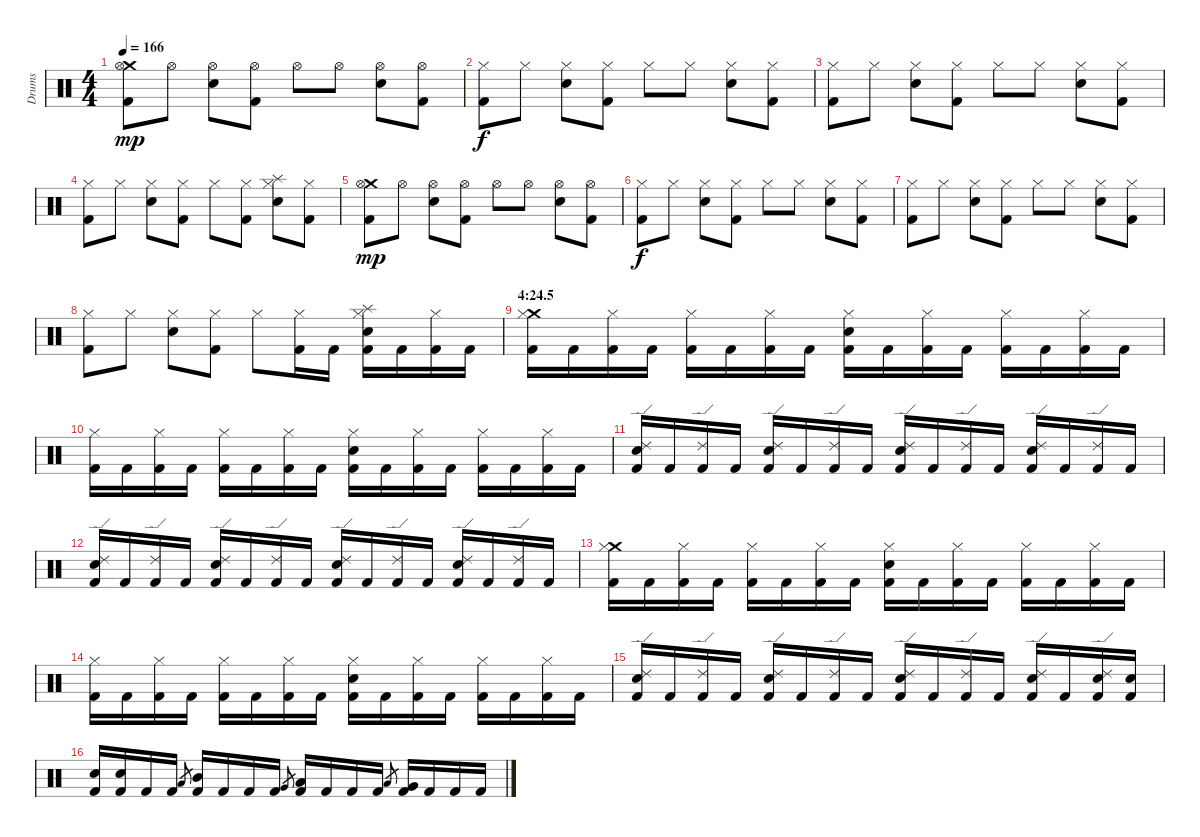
\track ("Drums" "Drums") {instrument percussion}
\staff {score}
\articulation defaults
\ts (4 4)
\tempo 166
\clef neutral
\ks c
("Crash medium (hit)" "Hi-Hat (open)" "Kick (hit) 2").8{dy mp} "Hi-Hat (open)".8 ("Hi-Hat (open)" "Electric Snare (hit)").8 ("Hi-Hat (open)" "Kick (hit) 2").8 "Hi-Hat (open)".8 "Hi-Hat (open)".8 ("Hi-Hat (open)" "Electric Snare (hit)").8 ("Hi-Hat (open)" "Kick (hit) 2").8 |
("Hi-Hat (closed)" "Kick (hit) 2").8{dy f} "Hi-Hat (closed)".8 ("Hi-Hat (closed)" "Electric Snare (hit)").8 ("Hi-Hat (closed)" "Kick (hit) 2").8 "Hi-Hat (closed)".8 "Hi-Hat (closed)".8 ("Hi-Hat (closed)" "Electric Snare (hit)").8 ("Hi-Hat (closed)" "Kick (hit) 2").8 |
("Hi-Hat (closed)" "Kick (hit) 2").8 "Hi-Hat (closed)".8 ("Hi-Hat (closed)" "Electric Snare (hit)").8 ("Hi-Hat (closed)" "Kick (hit) 2").8 "Hi-Hat (closed)".8 "Hi-Hat (closed)".8 ("Hi-Hat (closed)" "Electric Snare (hit)").8 ("Hi-Hat (closed)" "Kick (hit) 2").8 |
("Hi-Hat (closed)" "Kick (hit) 2").8 "Hi-Hat (closed)".8 ("Hi-Hat (closed)" "Electric Snare (hit)").8 ("Hi-Hat (closed)" "Kick (hit) 2").8 "Hi-Hat (closed)".8 ("Hi-Hat (closed)" "Kick (hit) 2").8 ("Splash (hit)" "Hi-Hat (closed)" "Electric Snare (hit)").8 ("Hi-Hat (closed)" "Kick (hit) 2").8 |
("Crash medium (hit)" "Hi-Hat (open)" "Kick (hit) 2").8{dy mp} "Hi-Hat (open)".8 ("Hi-Hat (open)" "Electric Snare (hit)").8 ("Hi-Hat (open)" "Kick (hit) 2").8 "Hi-Hat (open)".8 "Hi-Hat (open)".8 ("Hi-Hat (open)" "Electric Snare (hit)").8 ("Hi-Hat (open)" "Kick (hit) 2").8 |
("Hi-Hat (closed)" "Kick (hit) 2").8{dy f} "Hi-Hat (closed)".8 ("Hi-Hat (closed)" "Electric Snare (hit)").8 ("Hi-Hat (closed)" "Kick (hit) 2").8 "Hi-Hat (closed)".8 "Hi-Hat (closed)".8 ("Hi-Hat (closed)" "Electric Snare (hit)").8 ("Hi-Hat (closed)" "Kick (hit) 2").8 |
("Hi-Hat (closed)" "Kick (hit) 2").8 "Hi-Hat (closed)".8 ("Hi-Hat (closed)" "Electric Snare (hit)").8 ("Hi-Hat (closed)" "Kick (hit) 2").8 "Hi-Hat (closed)".8 "Hi-Hat (closed)".8 ("Hi-Hat (closed)" "Electric Snare (hit)").8 ("Hi-Hat (closed)" "Kick (hit) 2").8 |
("Hi-Hat (closed)" "Kick (hit) 2").8 "Hi-Hat (closed)".8 ("Hi-Hat (closed)" "Electric Snare (hit)").8 ("Hi-Hat (closed)" "Kick (hit) 2").8 "Hi-Hat (closed)".8 ("Hi-Hat (closed)" "Kick (hit) 2").16 "Kick (hit) 2".16 ("Splash (hit)" "Hi-Hat (closed)" "Electric Snare (hit)" "Kick (hit) 2").16 "Kick (hit) 2".16 ("Hi-Hat (closed)" "Kick (hit) 2").16 "Kick (hit) 2".16 |
\section ("" "4:24.5")
("Crash medium (hit)" "Hi-Hat (closed)" "Kick (hit) 2").16 "Kick (hit) 2".16 ("Hi-Hat (closed)" "Kick (hit) 2").16 "Kick (hit) 2".16 ("Hi-Hat (closed)" "Kick (hit) 2").16 "Kick (hit) 2".16 ("Hi-Hat (closed)" "Kick (hit) 2").16 "Kick (hit) 2".16 ("Hi-Hat (closed)" "Electric Snare (hit)" "Kick (hit) 2").16 "Kick (hit) 2".16 ("Hi-Hat (closed)" "Kick (hit) 2").16 "Kick (hit) 2".16 ("Hi-Hat (closed)" "Kick (hit) 2").16 "Kick (hit) 2".16 ("Hi-Hat (closed)" "Kick (hit) 2").16 "Kick (hit) 2".16 |
("Hi-Hat (closed)" "Kick (hit) 2").16 "Kick (hit) 2".16 ("Hi-Hat (closed)" "Kick (hit) 2").16 "Kick (hit) 2".16 ("Hi-Hat (closed)" "Kick (hit) 2").16 "Kick (hit) 2".16 ("Hi-Hat (closed)" "Kick (hit) 2").16 "Kick (hit) 2".16 ("Hi-Hat (closed)" "Electric Snare (hit)" "Kick (hit) 2").16 "Kick (hit) 2".16 ("Hi-Hat (closed)" "Kick (hit) 2").16 "Kick (hit) 2".16 ("Hi-Hat (closed)" "Kick (hit) 2").16 "Kick (hit) 2".16 ("Hi-Hat (closed)" "Kick (hit) 2").16 "Kick (hit) 2".16 |
("Ride (edge) 2" "Electric Snare (hit)" "Kick (hit) 2").16 "Kick (hit) 2".16 ("Ride (edge) 2" "Kick (hit) 2").16 "Kick (hit) 2".16 ("Ride (edge) 2" "Electric Snare (hit)" "Kick (hit) 2").16 "Kick (hit) 2".16 ("Ride (edge) 2" "Kick (hit) 2").16 "Kick (hit) 2".16 ("Ride (edge) 2" "Electric Snare (hit)" "Kick (hit) 2").16 "Kick (hit) 2".16 ("Ride (edge) 2" "Kick (hit) 2").16 "Kick (hit) 2".16 ("Ride (edge) 2" "Electric Snare (hit)" "Kick (hit) 2").16 "Kick (hit) 2".16 ("Ride (edge) 2" "Kick (hit) 2").16 "Kick (hit) 2".16 |
("Ride (edge) 2" "Electric Snare (hit)" "Kick (hit) 2").16 "Kick (hit) 2".16 ("Ride (edge) 2" "Kick (hit) 2").16 "Kick (hit) 2".16 ("Ride (edge) 2" "Electric Snare (hit)" "Kick (hit) 2").16 "Kick (hit) 2".16 ("Ride (edge) 2" "Kick (hit) 2").16 "Kick (hit) 2".16 ("Ride (edge) 2" "Electric Snare (hit)" "Kick (hit) 2").16 "Kick (hit) 2".16 ("Ride (edge) 2" "Kick (hit) 2").16 "Kick (hit) 2".16 ("Ride (edge) 2" "Electric Snare (hit)" "Kick (hit) 2").16 "Kick (hit) 2".16 ("Ride (edge) 2" "Kick (hit) 2").16 "Kick (hit) 2".16 |
("Crash medium (hit)" "Hi-Hat (closed)" "Kick (hit) 2").16 "Kick (hit) 2".16 ("Hi-Hat (closed)" "Kick (hit) 2").16 "Kick (hit) 2".16 ("Hi-Hat (closed)" "Kick (hit) 2").16 "Kick (hit) 2".16 ("Hi-Hat (closed)" "Kick (hit) 2").16 "Kick (hit) 2".16 ("Hi-Hat (closed)" "Electric Snare (hit)" "Kick (hit) 2").16 "Kick (hit) 2".16 ("Hi-Hat (closed)" "Kick (hit) 2").16 "Kick (hit) 2".16 ("Hi-Hat (closed)" "Kick (hit) 2").16 "Kick (hit) 2".16 ("Hi-Hat (closed)" "Kick (hit) 2").16 "Kick (hit) 2".16 |
("Hi-Hat (closed)" "Kick (hit) 2").16 "Kick (hit) 2".16 ("Hi-Hat (closed)" "Kick (hit) 2").16 "Kick (hit) 2".16 ("Hi-Hat (closed)" "Kick (hit) 2").16 "Kick (hit) 2".16 ("Hi-Hat (closed)" "Kick (hit) 2").16 "Kick (hit) 2".16 ("Hi-Hat (closed)" "Electric Snare (hit)" "Kick (hit) 2").16 "Kick (hit) 2".16 ("Hi-Hat (closed)" "Kick (hit) 2").16 "Kick (hit) 2".16 ("Hi-Hat (closed)" "Kick (hit) 2").16 "Kick (hit) 2".16 ("Hi-Hat (closed)" "Kick (hit) 2").16 "Kick (hit) 2".16 |
("Ride (edge) 2" "Electric Snare (hit)" "Kick (hit) 2").16 "Kick (hit) 2".16 ("Ride (edge) 2" "Kick (hit) 2").16 "Kick (hit) 2".16 ("Ride (edge) 2" "Electric Snare (hit)" "Kick (hit) 2").16 "Kick (hit) 2".16 ("Ride (edge) 2" "Kick (hit) 2").16 "Kick (hit) 2".16 ("Ride (edge) 2" "Electric Snare (hit)" "Kick (hit) 2").16 "Kick (hit) 2".16 ("Ride (edge) 2" "Kick (hit) 2").16 "Kick (hit) 2".16 ("Ride (edge) 2" "Electric Snare (hit)" "Kick (hit) 2").16 "Kick (hit) 2".16 ("Ride (edge) 2" "Electric Snare (hit)" "Kick (hit) 2").16 ("Electric Snare (hit)" "Kick (hit) 2").16 |
("Electric Snare (hit)" "Kick (hit) 2").16 ("Electric Snare (hit)" "Kick (hit) 2").16 "Kick (hit) 2".16 "Kick (hit) 2".16 "Low Tom (hit)".8{gr} ("Mid Tom (hit)" "Kick (hit) 2").16 "Kick (hit) 2".16 "Kick (hit) 2".16 "Kick (hit) 2".16 "Very Low Tom (hit)".8{gr} ("Low Tom (hit)" "Kick (hit) 2").16 "Kick (hit) 2".16 "Kick (hit) 2".16 "Kick (hit) 2".16 "Low Floor Tom (hit)".8{gr} ("Very Low Tom (hit)" "Kick (hit) 2").16 "Kick (hit) 2".16 "Kick (hit) 2".16 "Kick (hit) 2".16
